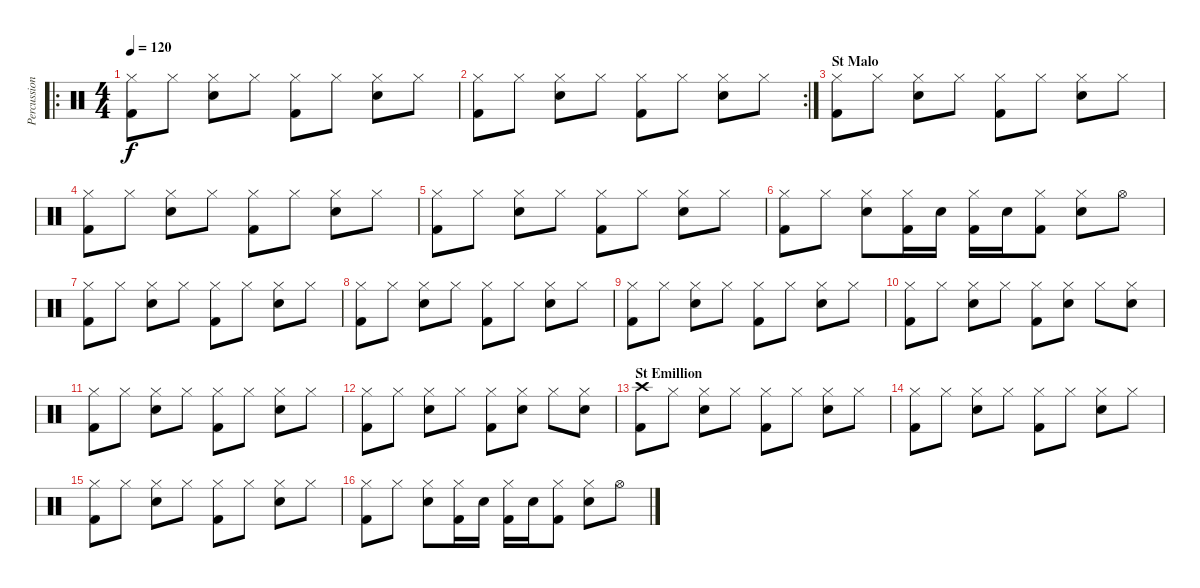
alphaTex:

\track ("Percussions" "Percussion") {instrument percussion}
\staff {score}
\articulation defaults
\ro
\ts (4 4)
\tempo 120
\clef neutral
\ks c
("Hi-Hat (closed)" "Kick (hit) 2").8{dy f} "Hi-Hat (closed)".8 ("Hi-Hat (closed)" "Electric Snare (hit)").8 "Hi-Hat (closed)".8 ("Hi-Hat (closed)" "Kick (hit) 2").8 "Hi-Hat (closed)".8 ("Hi-Hat (closed)" "Electric Snare (hit)").8 "Hi-Hat (closed)".8 |
\rc 2
("Hi-Hat (closed)" "Kick (hit) 2").8 "Hi-Hat (closed)".8 ("Hi-Hat (closed)" "Electric Snare (hit)").8 "Hi-Hat (closed)".8 ("Hi-Hat (closed)" "Kick (hit) 2").8 "Hi-Hat (closed)".8 ("Hi-Hat (closed)" "Electric Snare (hit)").8 "Hi-Hat (closed)".8 |
\section ("" "St Malo")
("Hi-Hat (closed)" "Kick (hit) 2").8 "Hi-Hat (closed)".8 ("Hi-Hat (closed)" "Electric Snare (hit)").8 "Hi-Hat (closed)".8 ("Hi-Hat (closed)" "Kick (hit) 2").8 "Hi-Hat (closed)".8 ("Hi-Hat (closed)" "Electric Snare (hit)").8 "Hi-Hat (closed)".8 |
("Hi-Hat (closed)" "Kick (hit) 2").8 "Hi-Hat (closed)".8 ("Hi-Hat (closed)" "Electric Snare (hit)").8 "Hi-Hat (closed)".8 ("Hi-Hat (closed)" "Kick (hit) 2").8 "Hi-Hat (closed)".8 ("Hi-Hat (closed)" "Electric Snare (hit)").8 "Hi-Hat (closed)".8 |
("Hi-Hat (closed)" "Kick (hit) 2").8 "Hi-Hat (closed)".8 ("Hi-Hat (closed)" "Electric Snare (hit)").8 "Hi-Hat (closed)".8 ("Hi-Hat (closed)" "Kick (hit) 2").8 "Hi-Hat (closed)".8 ("Hi-Hat (closed)" "Electric Snare (hit)").8 "Hi-Hat (closed)".8 |
("Hi-Hat (closed)" "Kick (hit) 2").8 "Hi-Hat (closed)".8 ("Hi-Hat (closed)" "Electric Snare (hit)").8 ("Hi-Hat (closed)" "Kick (hit) 2").16 "Electric Snare (hit)".16 ("Hi-Hat (closed)" "Kick (hit) 2").16 "Electric Snare (hit)".16 ("Hi-Hat (closed)" "Kick (hit) 2").8 ("Hi-Hat (closed)" "Electric Snare (hit)").8 "Hi-Hat (open)".8 |
("Hi-Hat (closed)" "Kick (hit) 2").8 "Hi-Hat (closed)".8 ("Hi-Hat (closed)" "Electric Snare (hit)").8 "Hi-Hat (closed)".8 ("Hi-Hat (closed)" "Kick (hit) 2").8 "Hi-Hat (closed)".8 ("Hi-Hat (closed)" "Electric Snare (hit)").8 "Hi-Hat (closed)".8 |
("Hi-Hat (closed)" "Kick (hit) 2").8 "Hi-Hat (closed)".8 ("Hi-Hat (closed)" "Electric Snare (hit)").8 "Hi-Hat (closed)".8 ("Hi-Hat (closed)" "Kick (hit) 2").8 "Hi-Hat (closed)".8 ("Hi-Hat (closed)" "Electric Snare (hit)").8 "Hi-Hat (closed)".8 |
("Hi-Hat (closed)" "Kick (hit) 2").8 "Hi-Hat (closed)".8 ("Hi-Hat (closed)" "Electric Snare (hit)").8 "Hi-Hat (closed)".8 ("Hi-Hat (closed)" "Kick (hit) 2").8 "Hi-Hat (closed)".8 ("Hi-Hat (closed)" "Electric Snare (hit)").8 "Hi-Hat (closed)".8 |
("Hi-Hat (closed)" "Kick (hit) 2").8 "Hi-Hat (closed)".8 ("Hi-Hat (closed)" "Electric Snare (hit)").8 "Hi-Hat (closed)".8 ("Hi-Hat (closed)" "Kick (hit) 2").8 ("Hi-Hat (closed)" "Electric Snare (hit)").8 "Hi-Hat (closed)".8 ("Hi-Hat (closed)" "Electric Snare (hit)").8 |
("Hi-Hat (closed)" "Kick (hit) 2").8 "Hi-Hat (closed)".8 ("Hi-Hat (closed)" "Electric Snare (hit)").8 "Hi-Hat (closed)".8 ("Hi-Hat (closed)" "Kick (hit) 2").8 "Hi-Hat (closed)".8 ("Hi-Hat (closed)" "Electric Snare (hit)").8 "Hi-Hat (closed)".8 |
("Hi-Hat (closed)" "Kick (hit) 2").8 "Hi-Hat (closed)".8 ("Hi-Hat (closed)" "Electric Snare (hit)").8 "Hi-Hat (closed)".8 ("Hi-Hat (closed)" "Kick (hit) 2").8 ("Hi-Hat (closed)" "Electric Snare (hit)").8 "Hi-Hat (closed)".8 ("Hi-Hat (closed)" "Electric Snare (hit)").8 |
\section ("" "St Emillion")
("Crash high (hit)" "Kick (hit) 2").8 "Hi-Hat (closed)".8 ("Hi-Hat (closed)" "Electric Snare (hit)").8 "Hi-Hat (closed)".8 ("Hi-Hat (closed)" "Kick (hit) 2").8 "Hi-Hat (closed)".8 ("Hi-Hat (closed)" "Electric Snare (hit)").8 "Hi-Hat (closed)".8 |
("Hi-Hat (closed)" "Kick (hit) 2").8 "Hi-Hat (closed)".8 ("Hi-Hat (closed)" "Electric Snare (hit)").8 "Hi-Hat (closed)".8 ("Hi-Hat (closed)" "Kick (hit) 2").8 "Hi-Hat (closed)".8 ("Hi-Hat (closed)" "Electric Snare (hit)").8 "Hi-Hat (closed)".8 |
("Hi-Hat (closed)" "Kick (hit) 2").8 "Hi-Hat (closed)".8 ("Hi-Hat (closed)" "Electric Snare (hit)").8 "Hi-Hat (closed)".8 ("Hi-Hat (closed)" "Kick (hit) 2").8 "Hi-Hat (closed)".8 ("Hi-Hat (closed)" "Electric Snare (hit)").8 "Hi-Hat (closed)".8 |
("Hi-Hat (closed)" "Kick (hit) 2").8 "Hi-Hat (closed)".8 ("Hi-Hat (closed)" "Electric Snare (hit)").8 ("Hi-Hat (closed)" "Kick (hit) 2").16 "Electric Snare (hit)".16 ("Hi-Hat (closed)" "Kick (hit) 2").16 "Electric Snare (hit)".16 ("Hi-Hat (closed)" "Kick (hit) 2").8 ("Hi-Hat (closed)" "Electric Snare (hit)").8 "Hi-Hat (open)".8
